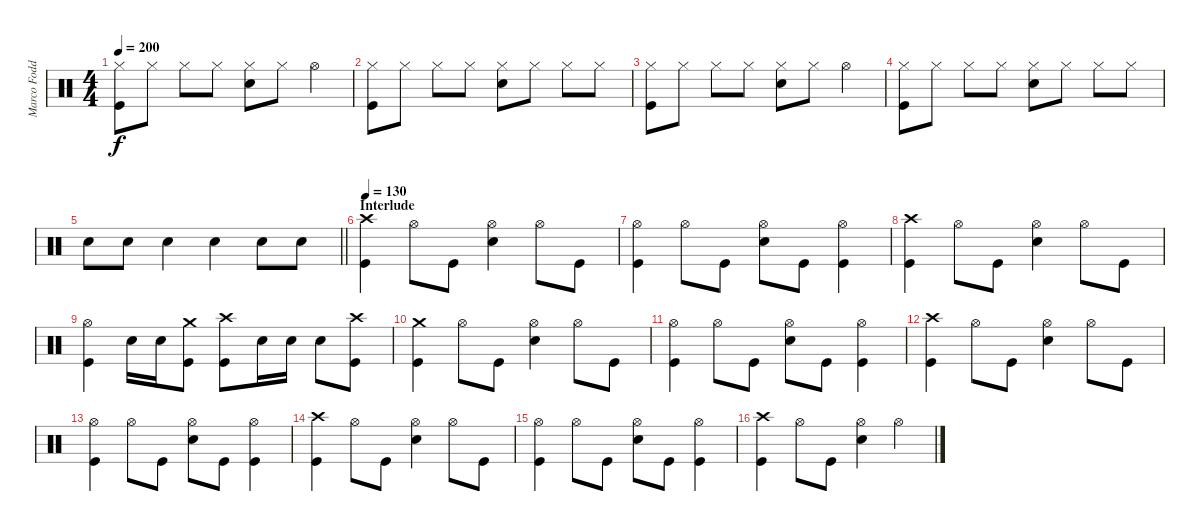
\track ("Marco Foddis" "Marco Fodd") {instrument percussion}
\staff {score}
\articulation defaults
\ts (4 4)
\tempo 200
\clef neutral
\ks c
("Hi-Hat (closed)" "Kick (hit)").8{dy f} "Hi-Hat (closed)".8 "Hi-Hat (closed)".8 "Hi-Hat (closed)".8 ("Hi-Hat (closed)" "Snare (hit) 2").8 "Hi-Hat (closed)".8 "Hi-Hat (open)".4 |
("Hi-Hat (closed)" "Kick (hit)").8 "Hi-Hat (closed)".8 "Hi-Hat (closed)".8 "Hi-Hat (closed)".8 ("Hi-Hat (closed)" "Snare (hit) 2").8 "Hi-Hat (closed)".8 "Hi-Hat (closed)".8 "Hi-Hat (closed)".8 |
("Hi-Hat (closed)" "Kick (hit)").8 "Hi-Hat (closed)".8 "Hi-Hat (closed)".8 "Hi-Hat (closed)".8 ("Hi-Hat (closed)" "Snare (hit) 2").8 "Hi-Hat (closed)".8 "Hi-Hat (open)".4 |
("Hi-Hat (closed)" "Kick (hit)").8 "Hi-Hat (closed)".8 "Hi-Hat (closed)".8 "Hi-Hat (closed)".8 ("Hi-Hat (closed)" "Snare (hit) 2").8 "Hi-Hat (closed)".8 "Hi-Hat (closed)".8 "Hi-Hat (closed)".8 |
\barLineRight lightlight "Snare (hit) 2".8 "Snare (hit) 2".8 "Snare (hit) 2".4 "Snare (hit) 2".4 "Snare (hit) 2".8 "Snare (hit) 2".8
|
\section ("" "Interlude")
\tempo 130
("Crash high (hit)" "Kick (hit)").4 "Hi-Hat (open)".8 "Kick (hit)".8 ("Hi-Hat (open)" "Snare (hit) 2").4 "Hi-Hat (open)".8 "Kick (hit)".8 |
("Hi-Hat (open)" "Kick (hit)").4 "Hi-Hat (open)".8 "Kick (hit)".8 ("Hi-Hat (open)" "Snare (hit) 2").8 "Kick (hit)".8 ("Hi-Hat (open)" "Kick (hit)").4 |
("Crash high (hit)" "Kick (hit)").4 "Hi-Hat (open)".8 "Kick (hit)".8 ("Hi-Hat (open)" "Snare (hit) 2").4 "Hi-Hat (open)".8 "Kick (hit)".8 |
("Hi-Hat (open)" "Kick (hit)").4 "Snare (hit) 2".16 "Snare (hit) 2".16 ("Crash medium (hit)" "Kick (hit)").8 ("Crash high (hit)" "Kick (hit)").8 "Snare (hit) 2".16 "Snare (hit) 2".16 "Snare (hit) 2".8 ("Crash high (hit)" "Kick (hit)").8 |
("Crash medium (hit)" "Kick (hit)").4 "Hi-Hat (open)".8 "Kick (hit)".8 ("Hi-Hat (open)" "Snare (hit) 2").4 "Hi-Hat (open)".8 "Kick (hit)".8 |
("Hi-Hat (open)" "Kick (hit)").4 "Hi-Hat (open)".8 "Kick (hit)".8 ("Hi-Hat (open)" "Snare (hit) 2").8 "Kick (hit)".8 ("Hi-Hat (open)" "Kick (hit)").4 |
("Crash high (hit)" "Kick (hit)").4 "Hi-Hat (open)".8 "Kick (hit)".8 ("Hi-Hat (open)" "Snare (hit) 2").4 "Hi-Hat (open)".8 "Kick (hit)".8 |
("Hi-Hat (open)" "Kick (hit)").4 "Hi-Hat (open)".8 "Kick (hit)".8 ("Hi-Hat (open)" "Snare (hit) 2").8 "Kick (hit)".8 ("Hi-Hat (open)" "Kick (hit)").4 |
("Crash high (hit)" "Kick (hit)").4 "Hi-Hat (open)".8 "Kick (hit)".8 ("Hi-Hat (open)" "Snare (hit) 2").4 "Hi-Hat (open)".8 "Kick (hit)".8 |
("Hi-Hat (open)" "Kick (hit)").4 "Hi-Hat (open)".8 "Kick (hit)".8 ("Hi-Hat (open)" "Snare (hit) 2").8 "Kick (hit)".8 ("Hi-Hat (open)" "Kick (hit)").4 |
("Crash high (hit)" "Kick (hit)").4 "Hi-Hat (open)".8 "Kick (hit)".8 ("Hi-Hat (open)" "Snare (hit) 2").4 "Hi-Hat (open)".4
